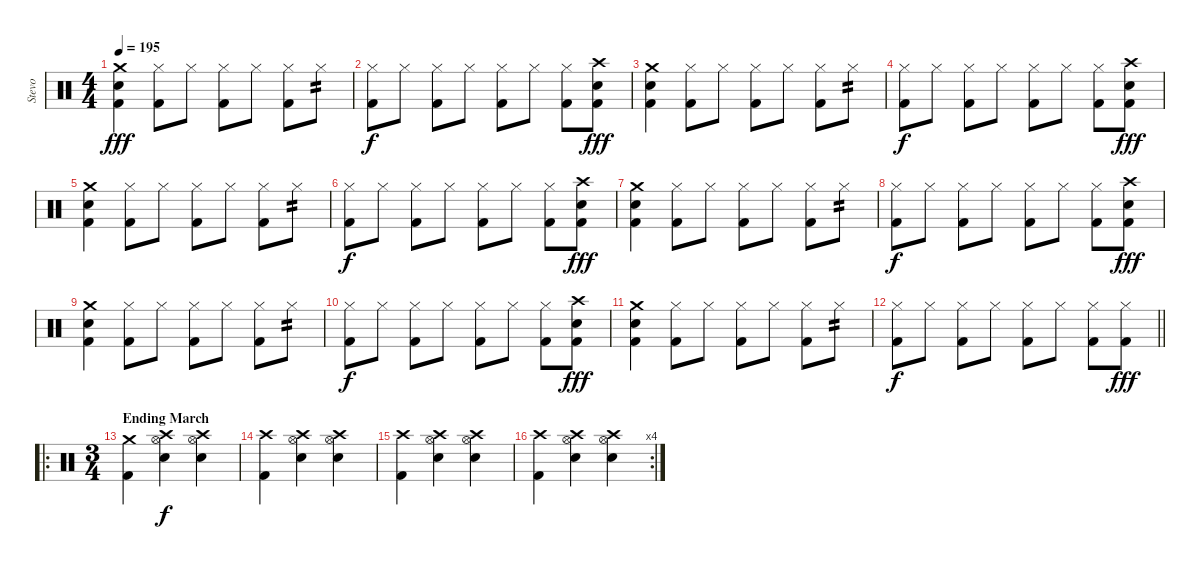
\track ("Stevo" "Stevo") {instrument percussion}
\staff {score}
\articulation defaults
\ts (4 4)
\tempo 195
\clef neutral
\ks c
("Crash medium (hit)" "Electric Snare (hit)" "Kick (hit) 2").4{dy fff} ("Hi-Hat (closed)" "Kick (hit) 2").8 "Hi-Hat (closed)".8 ("Hi-Hat (closed)" "Kick (hit) 2").8 "Hi-Hat (closed)".8 ("Hi-Hat (closed)" "Kick (hit) 2").8 "Hi-Hat (closed)".8{tp 2} |
("Hi-Hat (closed)" "Kick (hit) 2").8{dy f} "Hi-Hat (closed)".8 ("Hi-Hat (closed)" "Kick (hit) 2").8 "Hi-Hat (closed)".8 ("Hi-Hat (closed)" "Kick (hit) 2").8 "Hi-Hat (closed)".8 ("Hi-Hat (closed)" "Kick (hit) 2").8 ("Crash high (hit)" "Electric Snare (hit)" "Kick (hit) 2").8{dy fff} |
("Crash medium (hit)" "Electric Snare (hit)" "Kick (hit) 2").4 ("Hi-Hat (closed)" "Kick (hit) 2").8 "Hi-Hat (closed)".8 ("Hi-Hat (closed)" "Kick (hit) 2").8 "Hi-Hat (closed)".8 ("Hi-Hat (closed)" "Kick (hit) 2").8 "Hi-Hat (closed)".8{tp 2} |
("Hi-Hat (closed)" "Kick (hit) 2").8{dy f} "Hi-Hat (closed)".8 ("Hi-Hat (closed)" "Kick (hit) 2").8 "Hi-Hat (closed)".8 ("Hi-Hat (closed)" "Kick (hit) 2").8 "Hi-Hat (closed)".8 ("Hi-Hat (closed)" "Kick (hit) 2").8 ("Crash high (hit)" "Electric Snare (hit)" "Kick (hit) 2").8{dy fff} |
("Crash medium (hit)" "Electric Snare (hit)" "Kick (hit) 2").4 ("Hi-Hat (closed)" "Kick (hit) 2").8 "Hi-Hat (closed)".8 ("Hi-Hat (closed)" "Kick (hit) 2").8 "Hi-Hat (closed)".8 ("Hi-Hat (closed)" "Kick (hit) 2").8 "Hi-Hat (closed)".8{tp 2} |
("Hi-Hat (closed)" "Kick (hit) 2").8{dy f} "Hi-Hat (closed)".8 ("Hi-Hat (closed)" "Kick (hit) 2").8 "Hi-Hat (closed)".8 ("Hi-Hat (closed)" "Kick (hit) 2").8 "Hi-Hat (closed)".8 ("Hi-Hat (closed)" "Kick (hit) 2").8 ("Crash high (hit)" "Electric Snare (hit)" "Kick (hit) 2").8{dy fff} |
("Crash medium (hit)" "Electric Snare (hit)" "Kick (hit) 2").4 ("Hi-Hat (closed)" "Kick (hit) 2").8 "Hi-Hat (closed)".8 ("Hi-Hat (closed)" "Kick (hit) 2").8 "Hi-Hat (closed)".8 ("Hi-Hat (closed)" "Kick (hit) 2").8 "Hi-Hat (closed)".8{tp 2} |
("Hi-Hat (closed)" "Kick (hit) 2").8{dy f} "Hi-Hat (closed)".8 ("Hi-Hat (closed)" "Kick (hit) 2").8 "Hi-Hat (closed)".8 ("Hi-Hat (closed)" "Kick (hit) 2").8 "Hi-Hat (closed)".8 ("Hi-Hat (closed)" "Kick (hit) 2").8 ("Crash high (hit)" "Electric Snare (hit)" "Kick (hit) 2").8{dy fff} |
("Crash medium (hit)" "Electric Snare (hit)" "Kick (hit) 2").4 ("Hi-Hat (closed)" "Kick (hit) 2").8 "Hi-Hat (closed)".8 ("Hi-Hat (closed)" "Kick (hit) 2").8 "Hi-Hat (closed)".8 ("Hi-Hat (closed)" "Kick (hit) 2").8 "Hi-Hat (closed)".8{tp 2} |
("Hi-Hat (closed)" "Kick (hit) 2").8{dy f} "Hi-Hat (closed)".8 ("Hi-Hat (closed)" "Kick (hit) 2").8 "Hi-Hat (closed)".8 ("Hi-Hat (closed)" "Kick (hit) 2").8 "Hi-Hat (closed)".8 ("Hi-Hat (closed)" "Kick (hit) 2").8 ("Crash high (hit)" "Electric Snare (hit)" "Kick (hit) 2").8{dy fff} |
("Crash medium (hit)" "Electric Snare (hit)" "Kick (hit) 2").4 ("Hi-Hat (closed)" "Kick (hit) 2").8 "Hi-Hat (closed)".8 ("Hi-Hat (closed)" "Kick (hit) 2").8 "Hi-Hat (closed)".8 ("Hi-Hat (closed)" "Kick (hit) 2").8 "Hi-Hat (closed)".8{tp 2} |
\barLineRight lightlight
("Hi-Hat (closed)" "Kick (hit) 2").8{dy f} "Hi-Hat (closed)".8 ("Hi-Hat (closed)" "Kick (hit) 2").8 "Hi-Hat (closed)".8 ("Hi-Hat (closed)" "Kick (hit) 2").8 "Hi-Hat (closed)".8 ("Hi-Hat (closed)" "Kick (hit) 2").8 ("Hi-Hat (closed)" "Kick (hit) 2").8{dy fff} |
\ro
\ts (3 4)
\section ("" "Ending March")
("Crash medium (hit)" "Kick (hit) 2").4 ("Hi-Hat (open)" "Crash high (hit)" "Electric Snare (hit)").4{dy f} ("Hi-Hat (open)" "Crash high (hit)" "Electric Snare (hit)").4 |
("Crash high (hit)" "Kick (hit) 2").4 ("Hi-Hat (open)" "Crash high (hit)" "Electric Snare (hit)").4 ("Hi-Hat (open)" "Crash high (hit)" "Electric Snare (hit)").4 |
("Crash high (hit)" "Kick (hit) 2").4 ("Hi-Hat (open)" "Crash high (hit)" "Electric Snare (hit)").4 ("Hi-Hat (open)" "Crash high (hit)" "Electric Snare (hit)").4 |
\rc 4
("Crash high (hit)" "Kick (hit) 2").4 ("Hi-Hat (open)" "Crash high (hit)" "Electric Snare (hit)").4 ("Hi-Hat (open)" "Crash high (hit)" "Electric Snare (hit)").4
